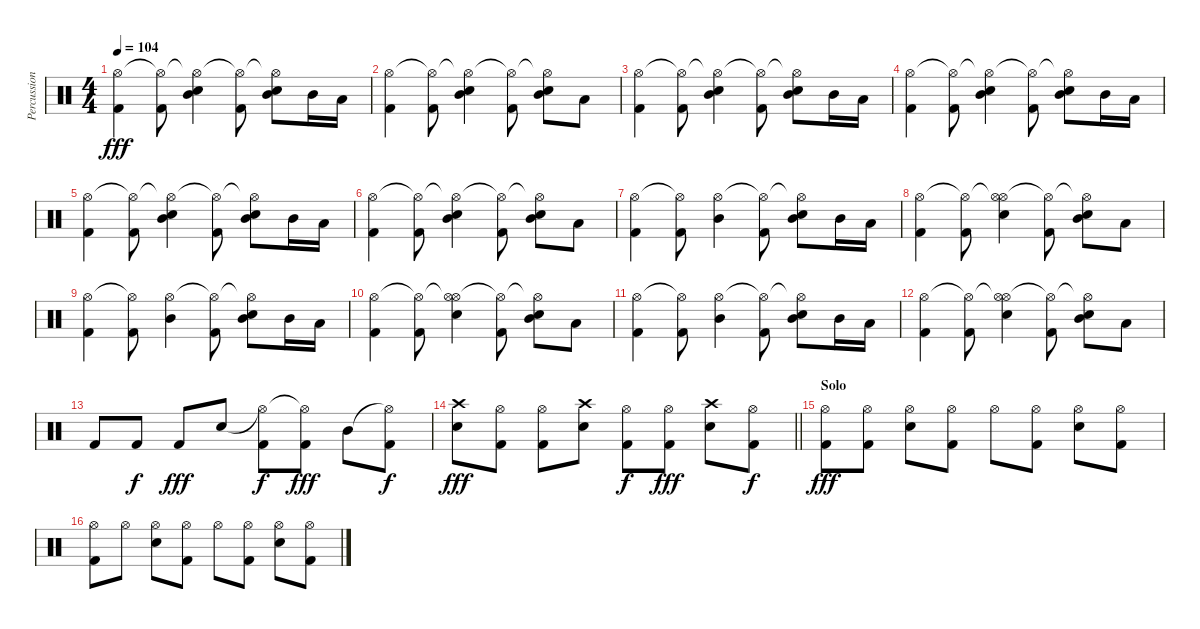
\track ("Percussion" "Percussion") {instrument percussion}
\staff {score}
\articulation defaults
\ts (4 4)
\tempo 104
\clef neutral
\ks c
("Hi-Hat (open)" "Kick (hit) 2").4{dy fff} ("Hi-Hat (open)"{t} "Kick (hit) 2").8 ("Hi-Hat (open)"{t} "Mid Tom (hit)" "Electric Snare (hit)").4 ("Hi-Hat (open)"{t} "Kick (hit) 2").8 ("Hi-Hat (open)"{t} "Mid Tom (hit)" "Electric Snare (hit)").8 "Mid Tom (hit)".16 "Low Tom (hit)".16 |
("Hi-Hat (open)" "Kick (hit) 2").4 ("Hi-Hat (open)"{t} "Kick (hit) 2").8 ("Hi-Hat (open)"{t} "Mid Tom (hit)" "Electric Snare (hit)").4 ("Hi-Hat (open)"{t} "Kick (hit) 2").8 ("Hi-Hat (open)"{t} "Mid Tom (hit)" "Electric Snare (hit)").8 "Low Tom (hit)".8 |
("Hi-Hat (open)" "Kick (hit) 2").4 ("Hi-Hat (open)"{t} "Kick (hit) 2").8 ("Hi-Hat (open)"{t} "Mid Tom (hit)" "Electric Snare (hit)").4 ("Hi-Hat (open)"{t} "Kick (hit) 2").8 ("Hi-Hat (open)"{t} "Mid Tom (hit)" "Electric Snare (hit)").8 "Mid Tom (hit)".16 "Low Tom (hit)".16 |
("Hi-Hat (open)" "Kick (hit) 2").4 ("Hi-Hat (open)"{t} "Kick (hit) 2").8 ("Hi-Hat (open)"{t} "Mid Tom (hit)" "Electric Snare (hit)").4 ("Hi-Hat (open)"{t} "Kick (hit) 2").8 ("Hi-Hat (open)"{t} "Mid Tom (hit)" "Electric Snare (hit)").8 "Mid Tom (hit)".16 "Low Tom (hit)".16 |
("Hi-Hat (open)" "Kick (hit) 2").4 ("Hi-Hat (open)"{t} "Kick (hit) 2").8 ("Hi-Hat (open)"{t} "Mid Tom (hit)" "Electric Snare (hit)").4 ("Hi-Hat (open)"{t} "Kick (hit) 2").8 ("Hi-Hat (open)"{t} "Mid Tom (hit)" "Electric Snare (hit)").8 "Mid Tom (hit)".16 "Low Tom (hit)".16 |
("Hi-Hat (open)" "Kick (hit) 2").4 ("Hi-Hat (open)"{t} "Kick (hit) 2").8 ("Hi-Hat (open)"{t} "Mid Tom (hit)" "Electric Snare (hit)").4 ("Hi-Hat (open)"{t} "Kick (hit) 2").8 ("Hi-Hat (open)"{t} "Mid Tom (hit)" "Electric Snare (hit)").8 "Low Tom (hit)".8 |
("Hi-Hat (open)" "Kick (hit) 2").4 ("Hi-Hat (open)"{t} "Kick (hit) 2").8 ("Hi-Hat (open)" "Mid Tom (hit)").4 ("Hi-Hat (open)"{t} "Kick (hit) 2").8 ("Hi-Hat (open)"{t} "Mid Tom (hit)" "Electric Snare (hit)").8 "Mid Tom (hit)".16 "Low Tom (hit)".16 |
("Hi-Hat (open)" "Kick (hit) 2").4 ("Hi-Hat (open)"{t} "Kick (hit) 2").8 ("Hi-Hat (open)"{t} "Hi-Hat (open)" "Electric Snare (hit)").4 ("Hi-Hat (open)"{t} "Kick (hit) 2").8 ("Hi-Hat (open)"{t} "Mid Tom (hit)" "Electric Snare (hit)").8 "Low Tom (hit)".8 |
("Hi-Hat (open)" "Kick (hit) 2").4 ("Hi-Hat (open)"{t} "Kick (hit) 2").8 ("Hi-Hat (open)" "Mid Tom (hit)").4 ("Hi-Hat (open)"{t} "Kick (hit) 2").8 ("Hi-Hat (open)"{t} "Mid Tom (hit)" "Electric Snare (hit)").8 "Mid Tom (hit)".16 "Low Tom (hit)".16 |
("Hi-Hat (open)" "Kick (hit) 2").4 ("Hi-Hat (open)"{t} "Kick (hit) 2").8 ("Hi-Hat (open)"{t} "Hi-Hat (open)" "Electric Snare (hit)").4 ("Hi-Hat (open)"{t} "Kick (hit) 2").8 ("Hi-Hat (open)"{t} "Mid Tom (hit)" "Electric Snare (hit)").8 "Low Tom (hit)".8 |
("Hi-Hat (open)" "Kick (hit) 2").4 ("Hi-Hat (open)"{t} "Kick (hit) 2").8 ("Hi-Hat (open)" "Mid Tom (hit)").4 ("Hi-Hat (open)"{t} "Kick (hit) 2").8 ("Hi-Hat (open)"{t} "Mid Tom (hit)" "Electric Snare (hit)").8 "Mid Tom (hit)".16 "Low Tom (hit)".16 |
("Hi-Hat (open)" "Kick (hit) 2").4 ("Hi-Hat (open)"{t} "Kick (hit) 2").8 ("Hi-Hat (open)"{t} "Hi-Hat (open)" "Electric Snare (hit)").4 ("Hi-Hat (open)"{t} "Kick (hit) 2").8 ("Hi-Hat (open)"{t} "Mid Tom (hit)" "Electric Snare (hit)").8 "Low Tom (hit)".8 |
"Kick (hit) 2".8 "Kick (hit) 2".8{dy f} "Kick (hit) 2".8{dy fff} "Electric Snare (hit)".8 ("Hi-Hat (open)"{t} "Kick (hit) 2").8{dy f} ("Hi-Hat (open)"{t} "Kick (hit) 2").8{dy fff} "Mid Tom (hit)".8 ("Hi-Hat (open)"{t} "Kick (hit) 2").8{dy f} |
\barLineRight lightlight
("Crash high (hit)" "Electric Snare (hit)").8{dy fff} ("Hi-Hat (open)" "Kick (hit) 2").8 ("Hi-Hat (open)" "Kick (hit) 2").8 ("Crash high (hit)" "Electric Snare (hit)").8 ("Hi-Hat (open)" "Kick (hit) 2").8{dy f} ("Hi-Hat (open)" "Kick (hit) 2").8{dy fff} ("Crash high (hit)" "Electric Snare (hit)").8 ("Hi-Hat (open)" "Kick (hit) 2").8{dy f} |
\section ("" "Solo")
("Hi-Hat (open)" "Kick (hit) 2").8{dy fff} ("Hi-Hat (open)" "Kick (hit) 2").8 ("Hi-Hat (open)" "Electric Snare (hit)").8 ("Hi-Hat (open)" "Kick (hit) 2").8 "Hi-Hat (open)".8 ("Hi-Hat (open)" "Kick (hit) 2").8 ("Hi-Hat (open)" "Electric Snare (hit)").8 ("Hi-Hat (open)" "Kick (hit) 2").8 |
("Hi-Hat (open)" "Kick (hit) 2").8 "Hi-Hat (open)".8 ("Hi-Hat (open)" "Electric Snare (hit)").8 ("Hi-Hat (open)" "Kick (hit) 2").8 "Hi-Hat (open)".8 ("Hi-Hat (open)" "Kick (hit) 2").8 ("Hi-Hat (open)" "Electric Snare (hit)").8 ("Hi-Hat (open)" "Kick (hit) 2").8
